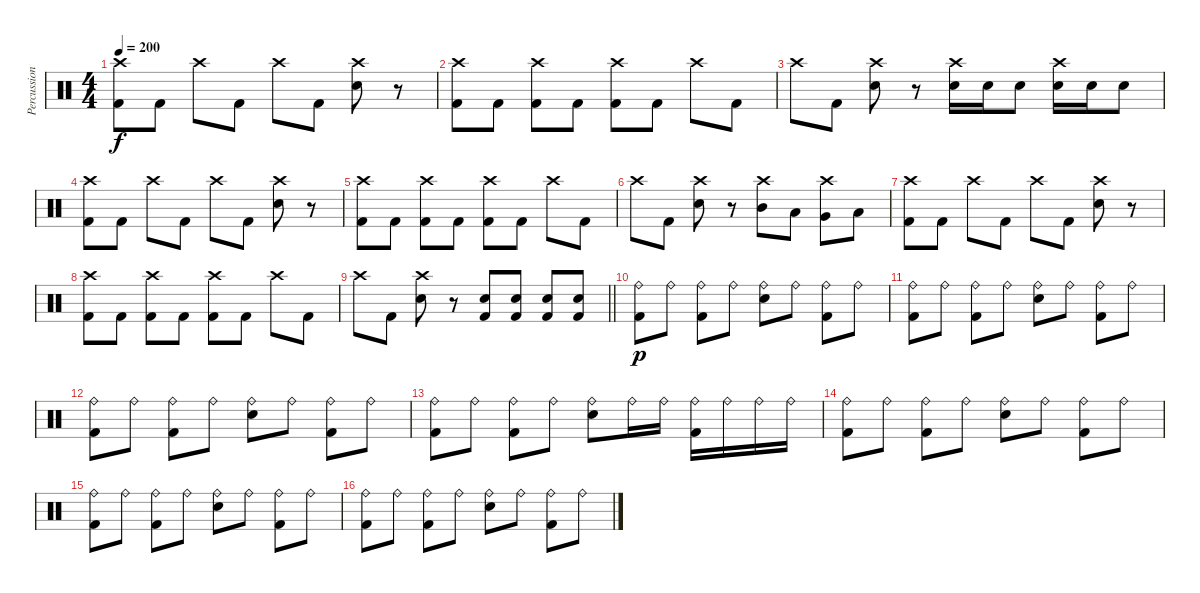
\track ("Percussion" "Percussion") {instrument percussion}
\staff {score}
\articulation defaults
\ts (4 4)
\tempo 200
\clef neutral
\ks c
("Crash high (hit)" "Kick (hit) 2").8{dy f} "Kick (hit) 2".8 "Crash high (hit)".8 "Kick (hit) 2".8 "Crash high (hit)".8 "Kick (hit) 2".8 ("Crash high (hit)" "Electric Snare (hit)").8 r.8 |
("Crash high (hit)" "Kick (hit) 2").8 "Kick (hit) 2".8 ("Crash high (hit)" "Kick (hit) 2").8 "Kick (hit) 2".8 ("Crash high (hit)" "Kick (hit) 2").8 "Kick (hit) 2".8 "Crash high (hit)".8 "Kick (hit) 2".8 |
"Crash high (hit)".8 "Kick (hit) 2".8 ("Crash high (hit)" "Electric Snare (hit)").8 r.8 ("Crash high (hit)" "Electric Snare (hit)").16 "Electric Snare (hit)".16 "Electric Snare (hit)".8 ("Crash high (hit)" "Electric Snare (hit)").16 "Electric Snare (hit)".16 "Electric Snare (hit)".8 |
("Crash high (hit)" "Kick (hit) 2").8 "Kick (hit) 2".8 "Crash high (hit)".8 "Kick (hit) 2".8 "Crash high (hit)".8 "Kick (hit) 2".8 ("Crash high (hit)" "Electric Snare (hit)").8 r.8 |
("Crash high (hit)" "Kick (hit) 2").8 "Kick (hit) 2".8 ("Crash high (hit)" "Kick (hit) 2").8 "Kick (hit) 2".8 ("Crash high (hit)" "Kick (hit) 2").8 "Kick (hit) 2".8 "Crash high (hit)".8 "Kick (hit) 2".8 |
"Crash high (hit)".8 "Kick (hit) 2".8 ("Crash high (hit)" "Electric Snare (hit)").8 r.8 ("Crash high (hit)" "Mid Tom (hit)").8 "Low Tom (hit)".8 ("Crash high (hit)" "Very Low Tom (hit)").8 "Low Floor Tom (hit)".8 |
("Crash high (hit)" "Kick (hit) 2").8 "Kick (hit) 2".8 "Crash high (hit)".8 "Kick (hit) 2".8 "Crash high (hit)".8 "Kick (hit) 2".8 ("Crash high (hit)" "Electric Snare (hit)").8 r.8 |
("Crash high (hit)" "Kick (hit) 2").8 "Kick (hit) 2".8 ("Crash high (hit)" "Kick (hit) 2").8 "Kick (hit) 2".8 ("Crash high (hit)" "Kick (hit) 2").8 "Kick (hit) 2".8 "Crash high (hit)".8 "Kick (hit) 2".8 |
\barLineRight lightlight "Crash high (hit)".8 "Kick (hit) 2".8
("Crash high (hit)" "Electric Snare (hit)").8 r.8 ("Electric Snare (hit)" "Kick (hit) 2").8 ("Electric Snare (hit)" "Kick (hit) 2").8 ("Electric Snare (hit)" "Kick (hit) 2").8 ("Electric Snare (hit)" "Kick (hit) 2").8 |
("Ride (bell)" "Kick (hit) 2").8{dy p} "Ride (bell)".8 ("Ride (bell)" "Kick (hit) 2").8 "Ride (bell)".8 ("Ride (bell)" "Electric Snare (hit)").8 "Ride (bell)".8 ("Ride (bell)" "Kick (hit) 2").8 "Ride (bell)".8 |
("Ride (bell)" "Kick (hit) 2").8 "Ride (bell)".8 ("Ride (bell)" "Kick (hit) 2").8 "Ride (bell)".8 ("Ride (bell)" "Electric Snare (hit)").8 "Ride (bell)".8 ("Ride (bell)" "Kick (hit) 2").8 "Ride (bell)".8 |
("Ride (bell)" "Kick (hit) 2").8 "Ride (bell)".8 ("Ride (bell)" "Kick (hit) 2").8 "Ride (bell)".8 ("Ride (bell)" "Electric Snare (hit)").8 "Ride (bell)".8 ("Ride (bell)" "Kick (hit) 2").8 "Ride (bell)".8 |
("Ride (bell)" "Kick (hit) 2").8 "Ride (bell)".8 ("Ride (bell)" "Kick (hit) 2").8 "Ride (bell)".8 ("Ride (bell)" "Electric Snare (hit)").8 "Ride (bell)".16 "Ride (bell)".16 ("Ride (bell)" "Kick (hit) 2").16 "Ride (bell)".16 "Ride (bell)".16 "Ride (bell)".16 |
("Ride (bell)" "Kick (hit) 2").8 "Ride (bell)".8 ("Ride (bell)" "Kick (hit) 2").8 "Ride (bell)".8 ("Ride (bell)" "Electric Snare (hit)").8 "Ride (bell)".8 ("Ride (bell)" "Kick (hit) 2").8 "Ride (bell)".8 |
("Ride (bell)" "Kick (hit) 2").8 "Ride (bell)".8 ("Ride (bell)" "Kick (hit) 2").8 "Ride (bell)".8 ("Ride (bell)" "Electric Snare (hit)").8 "Ride (bell)".8 ("Ride (bell)" "Kick (hit) 2").8 "Ride (bell)".8 |
("Ride (bell)" "Kick (hit) 2").8 "Ride (bell)".8 ("Ride (bell)" "Kick (hit) 2").8 "Ride (bell)".8 ("Ride (bell)" "Electric Snare (hit)").8 "Ride (bell)".8 ("Ride (bell)" "Kick (hit) 2").8 "Ride (bell)".8
